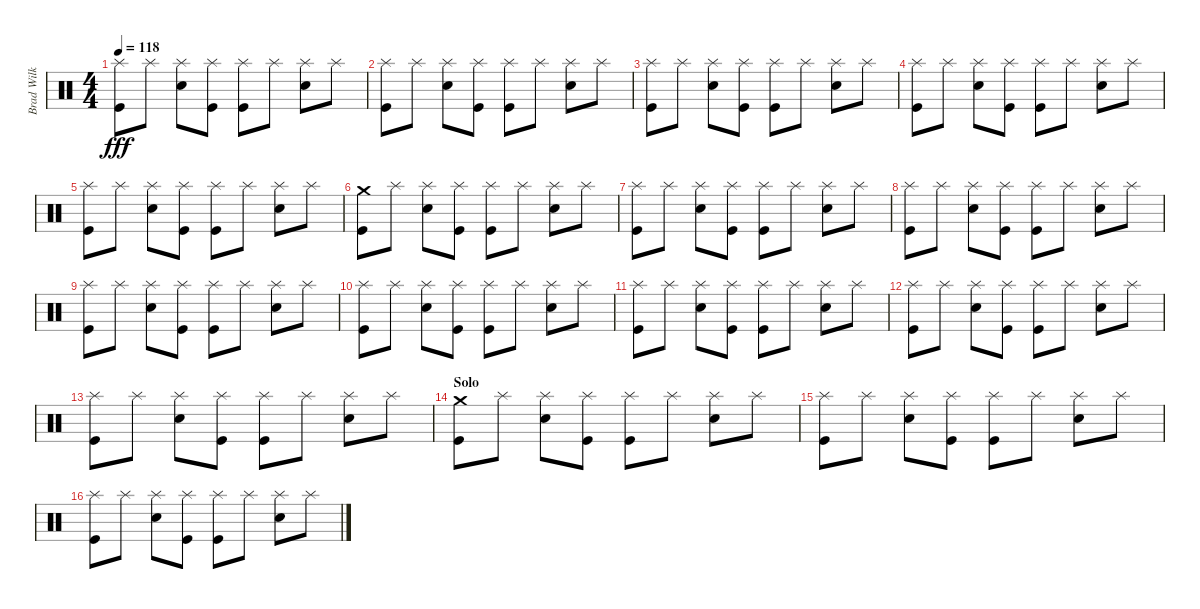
\track ("Brad Wilk - Drums" "Brad Wilk ") {instrument percussion}
\staff {score}
\articulation defaults
\ts (4 4)
\tempo 118
\clef neutral
\ks c
("Splash (hit)" "Kick (hit)").8{dy fff} "Splash (hit)".8 ("Splash (hit)" "Snare (hit) 2").8 ("Splash (hit)" "Kick (hit)").8 ("Splash (hit)" "Kick (hit)").8 "Splash (hit)".8 ("Splash (hit)" "Snare (hit) 2").8 "Splash (hit)".8 |
("Splash (hit)" "Kick (hit)").8 "Splash (hit)".8 ("Splash (hit)" "Snare (hit) 2").8 ("Splash (hit)" "Kick (hit)").8 ("Splash (hit)" "Kick (hit)").8 "Splash (hit)".8 ("Splash (hit)" "Snare (hit) 2").8 "Splash (hit)".8 |
("Splash (hit)" "Kick (hit)").8 "Splash (hit)".8 ("Splash (hit)" "Snare (hit) 2").8 ("Splash (hit)" "Kick (hit)").8 ("Splash (hit)" "Kick (hit)").8 "Splash (hit)".8 ("Splash (hit)" "Snare (hit) 2").8 "Splash (hit)".8 |
("Splash (hit)" "Kick (hit)").8 "Splash (hit)".8 ("Splash (hit)" "Snare (hit) 2").8 ("Splash (hit)" "Kick (hit)").8 ("Splash (hit)" "Kick (hit)").8 "Splash (hit)".8 ("Splash (hit)" "Snare (hit) 2").8 "Splash (hit)".8 |
("Splash (hit)" "Kick (hit)").8 "Splash (hit)".8 ("Splash (hit)" "Snare (hit) 2").8 ("Splash (hit)" "Kick (hit)").8 ("Splash (hit)" "Kick (hit)").8 "Splash (hit)".8 ("Splash (hit)" "Snare (hit) 2").8 "Splash (hit)".8 |
("Crash medium (hit)" "Kick (hit)").8 "Splash (hit)".8 ("Splash (hit)" "Snare (hit) 2").8 ("Splash (hit)" "Kick (hit)").8 ("Splash (hit)" "Kick (hit)").8 "Splash (hit)".8 ("Splash (hit)" "Snare (hit) 2").8 "Splash (hit)".8 |
("Splash (hit)" "Kick (hit)").8 "Splash (hit)".8 ("Splash (hit)" "Snare (hit) 2").8 ("Splash (hit)" "Kick (hit)").8 ("Splash (hit)" "Kick (hit)").8 "Splash (hit)".8 ("Splash (hit)" "Snare (hit) 2").8 "Splash (hit)".8 |
("Splash (hit)" "Kick (hit)").8 "Splash (hit)".8 ("Splash (hit)" "Snare (hit) 2").8 ("Splash (hit)" "Kick (hit)").8 ("Splash (hit)" "Kick (hit)").8 "Splash (hit)".8 ("Splash (hit)" "Snare (hit) 2").8 "Splash (hit)".8 |
("Splash (hit)" "Kick (hit)").8 "Splash (hit)".8 ("Splash (hit)" "Snare (hit) 2").8 ("Splash (hit)" "Kick (hit)").8 ("Splash (hit)" "Kick (hit)").8 "Splash (hit)".8 ("Splash (hit)" "Snare (hit) 2").8 "Splash (hit)".8 |
("Splash (hit)" "Kick (hit)").8 "Splash (hit)".8 ("Splash (hit)" "Snare (hit) 2").8 ("Splash (hit)" "Kick (hit)").8 ("Splash (hit)" "Kick (hit)").8 "Splash (hit)".8 ("Splash (hit)" "Snare (hit) 2").8 "Splash (hit)".8 |
("Splash (hit)" "Kick (hit)").8 "Splash (hit)".8 ("Splash (hit)" "Snare (hit) 2").8 ("Splash (hit)" "Kick (hit)").8 ("Splash (hit)" "Kick (hit)").8 "Splash (hit)".8 ("Splash (hit)" "Snare (hit) 2").8 "Splash (hit)".8 |
("Splash (hit)" "Kick (hit)").8 "Splash (hit)".8 ("Splash (hit)" "Snare (hit) 2").8 ("Splash (hit)" "Kick (hit)").8 ("Splash (hit)" "Kick (hit)").8 "Splash (hit)".8 ("Splash (hit)" "Snare (hit) 2").8 "Splash (hit)".8 |
("Splash (hit)" "Kick (hit)").8 "Splash (hit)".8 ("Splash (hit)" "Snare (hit) 2").8 ("Splash (hit)" "Kick (hit)").8 ("Splash (hit)" "Kick (hit)").8 "Splash (hit)".8 ("Splash (hit)" "Snare (hit) 2").8 "Splash (hit)".8 |
\section ("" "Solo")
("Crash medium (hit)" "Kick (hit)").8 "Splash (hit)".8 ("Splash (hit)" "Snare (hit) 2").8 ("Splash (hit)" "Kick (hit)").8 ("Splash (hit)" "Kick (hit)").8 "Splash (hit)".8 ("Splash (hit)" "Snare (hit) 2").8 "Splash (hit)".8 |
("Splash (hit)" "Kick (hit)").8 "Splash (hit)".8 ("Splash (hit)" "Snare (hit) 2").8 ("Splash (hit)" "Kick (hit)").8 ("Splash (hit)" "Kick (hit)").8 "Splash (hit)".8 ("Splash (hit)" "Snare (hit) 2").8 "Splash (hit)".8 |
("Splash (hit)" "Kick (hit)").8 "Splash (hit)".8 ("Splash (hit)" "Snare (hit) 2").8 ("Splash (hit)" "Kick (hit)").8 ("Splash (hit)" "Kick (hit)").8 "Splash (hit)".8 ("Splash (hit)" "Snare (hit) 2").8 "Splash (hit)".8
